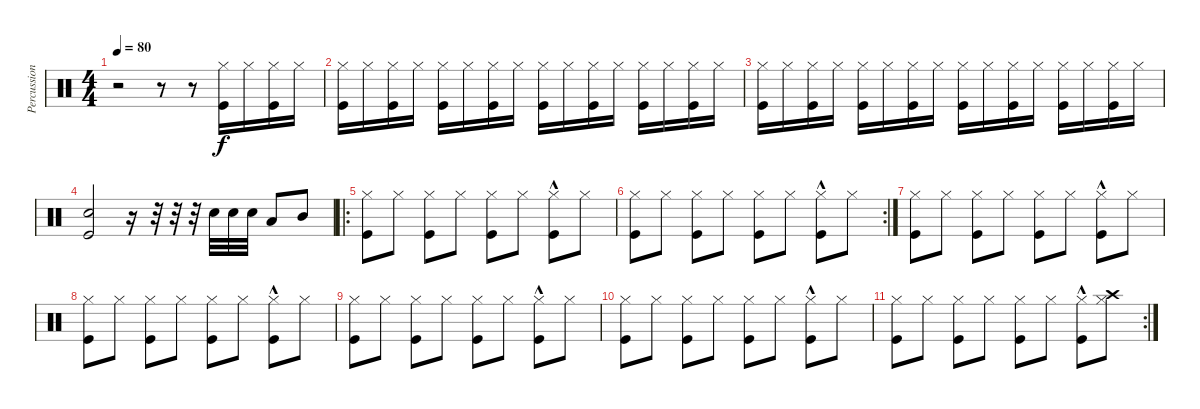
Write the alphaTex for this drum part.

\track ("Percussions" "Percussion") {instrument percussion}
\staff {score}
\articulation defaults
\ts (4 4)
\tempo 80
\clef neutral
\ks c
r.2{dy f} r.8 r.8 ("Hi-Hat (closed)" "Kick (hit)").16 "Hi-Hat (closed)".16 ("Hi-Hat (closed)" "Kick (hit)").16 "Hi-Hat (closed)".16 |
("Hi-Hat (closed)" "Kick (hit)").16 "Hi-Hat (closed)".16 ("Hi-Hat (closed)" "Kick (hit)").16 "Hi-Hat (closed)".16 ("Hi-Hat (closed)" "Kick (hit)").16 "Hi-Hat (closed)".16 ("Hi-Hat (closed)" "Kick (hit)").16 "Hi-Hat (closed)".16 ("Hi-Hat (closed)" "Kick (hit)").16 "Hi-Hat (closed)".16 ("Hi-Hat (closed)" "Kick (hit)").16 "Hi-Hat (closed)".16 ("Hi-Hat (closed)" "Kick (hit)").16 "Hi-Hat (closed)".16 ("Hi-Hat (closed)" "Kick (hit)").16 "Hi-Hat (closed)".16 |
("Hi-Hat (closed)" "Kick (hit)").16 "Hi-Hat (closed)".16 ("Hi-Hat (closed)" "Kick (hit)").16 "Hi-Hat (closed)".16 ("Hi-Hat (closed)" "Kick (hit)").16 "Hi-Hat (closed)".16 ("Hi-Hat (closed)" "Kick (hit)").16 "Hi-Hat (closed)".16 ("Hi-Hat (closed)" "Kick (hit)").16 "Hi-Hat (closed)".16 ("Hi-Hat (closed)" "Kick (hit)").16 "Hi-Hat (closed)".16 ("Hi-Hat (closed)" "Kick (hit)").16 "Hi-Hat (closed)".16 ("Hi-Hat (closed)" "Kick (hit)").16 "Hi-Hat (closed)".16 |
("Electric Snare (hit)" "Kick (hit)").2 r.16 r.32 r.32 r.32 "Electric Snare (hit)".32 "Electric Snare (hit)".32 "Electric Snare (hit)".32 "Low Floor Tom (hit)".8 "Mid Tom (hit)".8 |
\ro
("Hi-Hat (closed)" "Kick (hit)").8 "Hi-Hat (closed)".8 ("Hi-Hat (closed)" "Kick (hit)").8 "Hi-Hat (closed)".8 ("Hi-Hat (closed)" "Kick (hit)").8 "Hi-Hat (closed)".8 ("Hi-Hat (closed)"{hac} "Kick (hit)").8 "Hi-Hat (closed)".8 |
\rc 2
("Hi-Hat (closed)" "Kick (hit)").8 "Hi-Hat (closed)".8 ("Hi-Hat (closed)" "Kick (hit)").8 "Hi-Hat (closed)".8 ("Hi-Hat (closed)" "Kick (hit)").8 "Hi-Hat (closed)".8 ("Hi-Hat (closed)"{hac} "Kick (hit)").8 "Hi-Hat (closed)".8 |
("Hi-Hat (closed)" "Kick (hit)").8 "Hi-Hat (closed)".8 ("Hi-Hat (closed)" "Kick (hit)").8 "Hi-Hat (closed)".8 ("Hi-Hat (closed)" "Kick (hit)").8 "Hi-Hat (closed)".8 ("Hi-Hat (closed)"{hac} "Kick (hit)").8 "Hi-Hat (closed)".8 |
("Hi-Hat (closed)" "Kick (hit)").8 "Hi-Hat (closed)".8 ("Hi-Hat (closed)" "Kick (hit)").8 "Hi-Hat (closed)".8 ("Hi-Hat (closed)" "Kick (hit)").8 "Hi-Hat (closed)".8 ("Hi-Hat (closed)"{hac} "Kick (hit)").8 "Hi-Hat (closed)".8 |
("Hi-Hat (closed)" "Kick (hit)").8 "Hi-Hat (closed)".8 ("Hi-Hat (closed)" "Kick (hit)").8 "Hi-Hat (closed)".8 ("Hi-Hat (closed)" "Kick (hit)").8 "Hi-Hat (closed)".8 ("Hi-Hat (closed)"{hac} "Kick (hit)").8 "Hi-Hat (closed)".8 |
("Hi-Hat (closed)" "Kick (hit)").8 "Hi-Hat (closed)".8 ("Hi-Hat (closed)" "Kick (hit)").8 "Hi-Hat (closed)".8 ("Hi-Hat (closed)" "Kick (hit)").8 "Hi-Hat (closed)".8 ("Hi-Hat (closed)"{hac} "Kick (hit)").8 "Hi-Hat (closed)".8 |
\rc 2
("Hi-Hat (closed)" "Kick (hit)").8 "Hi-Hat (closed)".8 ("Hi-Hat (closed)" "Kick (hit)").8 "Hi-Hat (closed)".8 ("Hi-Hat (closed)" "Kick (hit)").8 "Hi-Hat (closed)".8 ("Hi-Hat (closed)"{hac} "Kick (hit)").8 ("Crash high (hit)" "Hi-Hat (closed)").8
